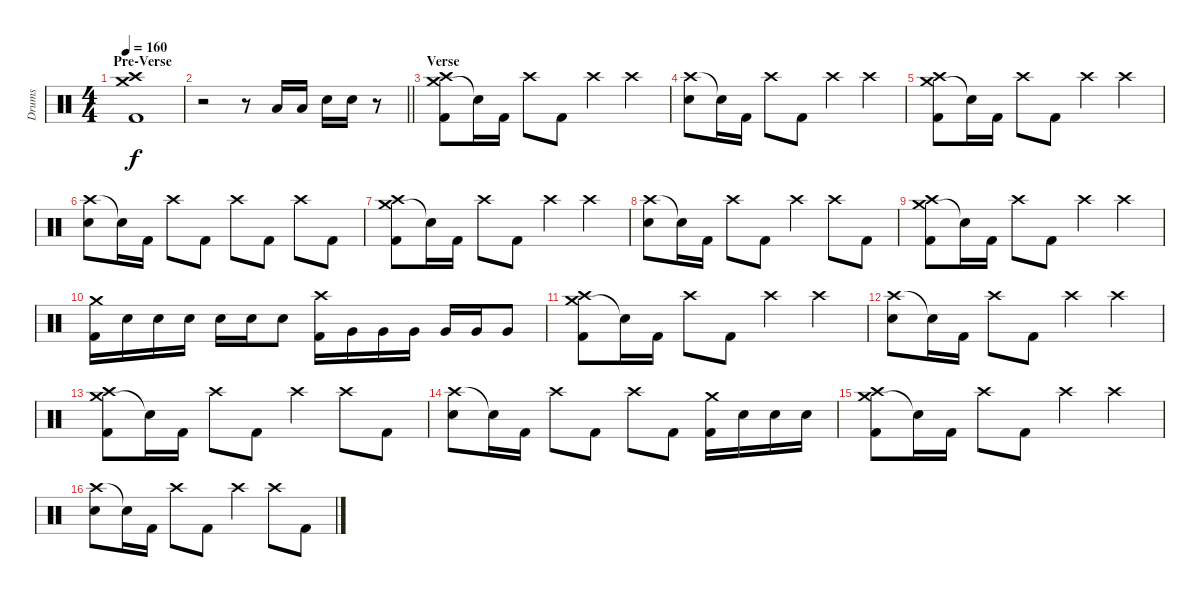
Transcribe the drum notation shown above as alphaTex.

\track ("Drums" "Drums") {instrument percussion}
\staff {score}
\articulation defaults
\ts (4 4)
\section ("" "Pre-Verse")
\tempo 160
\clef neutral
\ks c
("Crash medium (hit)" "Crash high (hit)" "Kick (hit) 2").1{dy f} |
\barLineRight lightlight
r.2 r.8 "Low Tom (hit)".16 "Low Tom (hit)".16 "Electric Snare (hit)".16 "Electric Snare (hit)".16 r.8 |
\section ("" "Verse")
("Crash medium (hit)" "Crash high (hit)" "Kick (hit) 2").8 "Snare (hit)"{t}.16 "Kick (hit) 2".16 "Crash high (hit)".8 "Kick (hit) 2".8 "Crash high (hit)".4 "Crash high (hit)".4 |
("Crash high (hit)" "Electric Snare (hit)").8 "Snare (hit)"{t}.16 "Kick (hit) 2".16 "Crash high (hit)".8 "Kick (hit) 2".8 "Crash high (hit)".4 "Crash high (hit)".4 |
("Crash medium (hit)" "Crash high (hit)" "Kick (hit) 2").8 "Snare (hit)"{t}.16 "Kick (hit) 2".16 "Crash high (hit)".8 "Kick (hit) 2".8 "Crash high (hit)".4 "Crash high (hit)".4 |
("Crash high (hit)" "Electric Snare (hit)").8 "Electric Snare (hit)"{t}.16 "Kick (hit) 2".16 "Crash high (hit)".8 "Kick (hit) 2".8 "Crash high (hit)".8 "Kick (hit) 2".8 "Crash high (hit)".8 "Kick (hit) 2".8 |
("Crash medium (hit)" "Crash high (hit)" "Kick (hit) 2").8 "Snare (hit)"{t}.16 "Kick (hit) 2".16 "Crash high (hit)".8 "Kick (hit) 2".8 "Crash high (hit)".4 "Crash high (hit)".4 |
("Crash high (hit)" "Electric Snare (hit)").8 "Electric Snare (hit)"{t}.16 "Kick (hit) 2".16 "Crash high (hit)".8 "Kick (hit) 2".8 "Crash high (hit)".4 "Crash high (hit)".8 "Kick (hit) 2".8 |
("Crash medium (hit)" "Crash high (hit)" "Kick (hit) 2").8 "Snare (hit)"{t}.16 "Kick (hit) 2".16 "Crash high (hit)".8 "Kick (hit) 2".8 "Crash high (hit)".4 "Crash high (hit)".4 |
("Crash medium (hit)" "Kick (hit) 2").16 "Electric Snare (hit)".16 "Electric Snare (hit)".16 "Electric Snare (hit)".16 "Electric Snare (hit)".16 "Electric Snare (hit)".16 "Electric Snare (hit)".8 ("Crash high (hit)" "Kick (hit) 2").16 "Very Low Tom (hit)".16 "Very Low Tom (hit)".16 "Very Low Tom (hit)".16 "Very Low Tom (hit)".16 "Very Low Tom (hit)".16 "Very Low Tom (hit)".8 |
("Crash medium (hit)" "Crash high (hit)" "Kick (hit) 2").8 "Snare (hit)"{t}.16 "Kick (hit) 2".16 "Crash high (hit)".8 "Kick (hit) 2".8 "Crash high (hit)".4 "Crash high (hit)".4 |
("Crash high (hit)" "Electric Snare (hit)").8 "Snare (hit)"{t}.16 "Kick (hit) 2".16 "Crash high (hit)".8 "Kick (hit) 2".8 "Crash high (hit)".4 "Crash high (hit)".4 |
("Crash medium (hit)" "Crash high (hit)" "Kick (hit) 2").8 "Snare (hit)"{t}.16 "Kick (hit) 2".16 "Crash high (hit)".8 "Kick (hit) 2".8 "Crash high (hit)".4 "Crash high (hit)".8 "Kick (hit) 2".8 |
("Crash high (hit)" "Electric Snare (hit)").8 "Electric Snare (hit)"{t}.16 "Kick (hit) 2".16 "Crash high (hit)".8 "Kick (hit) 2".8 "Crash high (hit)".8 "Kick (hit) 2".8 ("Crash medium (hit)" "Kick (hit) 2").16 "Electric Snare (hit)".16 "Electric Snare (hit)".16 "Electric Snare (hit)".16 |
("Crash medium (hit)" "Crash high (hit)" "Kick (hit) 2").8 "Snare (hit)"{t}.16 "Kick (hit) 2".16 "Crash high (hit)".8 "Kick (hit) 2".8 "Crash high (hit)".4 "Crash high (hit)".4 |
("Crash high (hit)" "Electric Snare (hit)").8 "Electric Snare (hit)"{t}.16 "Kick (hit) 2".16 "Crash high (hit)".8 "Kick (hit) 2".8 "Crash high (hit)".4 "Crash high (hit)".8 "Kick (hit) 2".8
